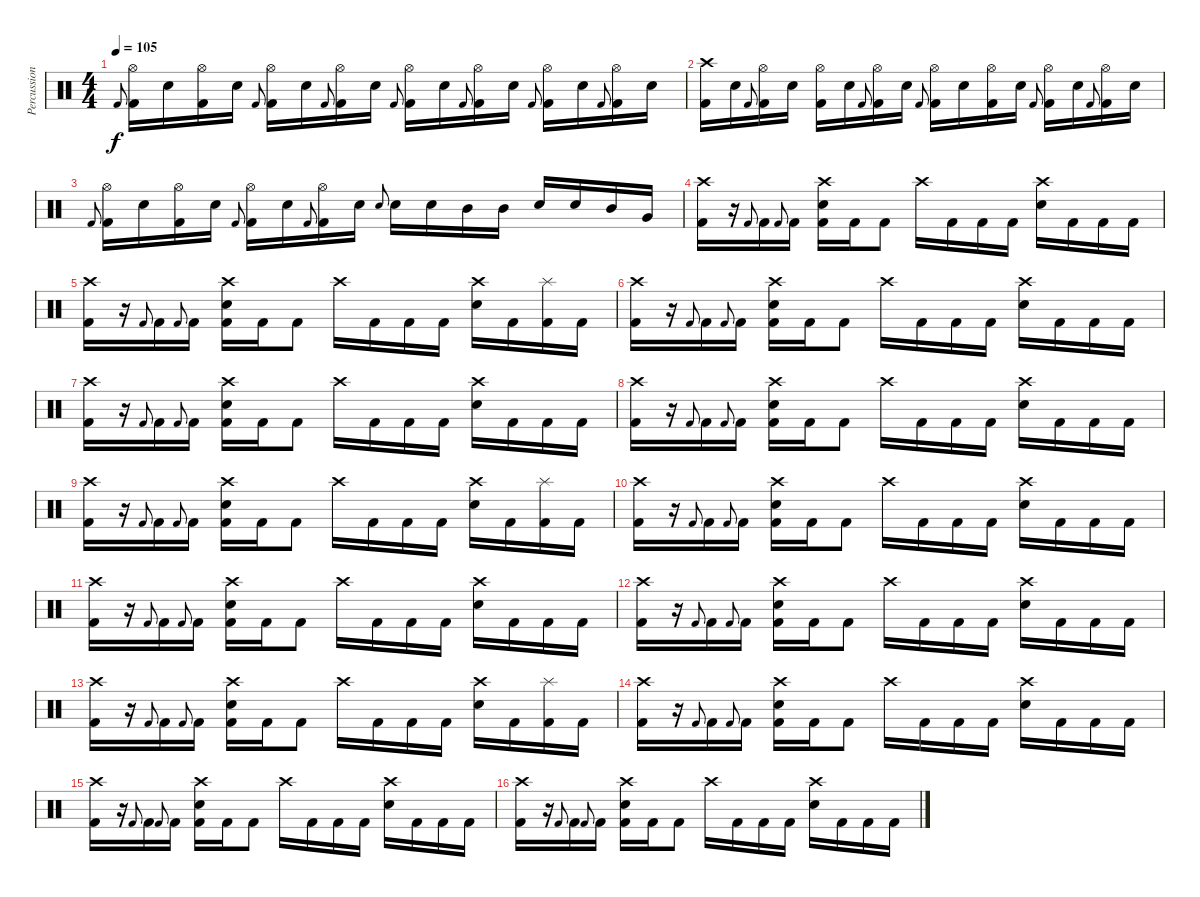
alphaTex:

\track ("Percussion" "Percussion") {instrument percussion}
\staff {score}
\articulation defaults
\ts (4 4)
\tempo 105
\clef neutral
\ks c "Kick (hit) 2".8{gr onbeat dy f}
("Hi-Hat (open)" "Kick (hit) 2").16 "Snare (hit) 2".16 ("Hi-Hat (open)" "Kick (hit) 2").16 "Snare (hit) 2".16 "Kick (hit) 2".8{gr onbeat} ("Hi-Hat (open)" "Kick (hit) 2").16 "Snare (hit) 2".16 "Kick (hit) 2".8{gr onbeat} ("Hi-Hat (open)" "Kick (hit) 2").16 "Snare (hit) 2".16 "Kick (hit) 2".8{gr onbeat} ("Hi-Hat (open)" "Kick (hit) 2").16 "Snare (hit) 2".16 "Kick (hit) 2".8{gr onbeat} ("Hi-Hat (open)" "Kick (hit) 2").16 "Snare (hit) 2".16 "Kick (hit) 2".8{gr onbeat} ("Hi-Hat (open)" "Kick (hit) 2").16 "Snare (hit) 2".16 "Kick (hit) 2".8{gr onbeat} ("Hi-Hat (open)" "Kick (hit) 2").16 "Snare (hit) 2".16 |
("Crash high (hit)" "Kick (hit) 2").16 "Snare (hit) 2".16 "Kick (hit) 2".8{gr onbeat} ("Hi-Hat (open)" "Kick (hit) 2").16 "Snare (hit) 2".16 ("Hi-Hat (open)" "Kick (hit) 2").16 "Snare (hit) 2".16 "Kick (hit) 2".8{gr onbeat} ("Hi-Hat (open)" "Kick (hit) 2").16 "Snare (hit) 2".16 "Kick (hit) 2".8{gr onbeat} ("Hi-Hat (open)" "Kick (hit) 2").16 "Snare (hit) 2".16 ("Hi-Hat (open)" "Kick (hit) 2").16 "Snare (hit) 2".16 "Kick (hit) 2".8{gr onbeat} ("Hi-Hat (open)" "Kick (hit) 2").16 "Snare (hit) 2".16 "Kick (hit) 2".8{gr onbeat} ("Hi-Hat (open)" "Kick (hit) 2").16 "Snare (hit) 2".16 |
"Kick (hit) 2".8{gr onbeat} ("Hi-Hat (open)" "Kick (hit) 2").16 "Snare (hit) 2".16 ("Hi-Hat (open)" "Kick (hit) 2").16 "Snare (hit) 2".16 "Kick (hit) 2".8{gr onbeat} ("Hi-Hat (open)" "Kick (hit) 2").16 "Snare (hit) 2".16 "Kick (hit) 2".8{gr onbeat} ("Hi-Hat (open)" "Kick (hit) 2").16 "Snare (hit) 2".16 "Snare (hit) 2".8{gr onbeat} "Snare (hit) 2".16 "Snare (hit) 2".16 "Mid Tom (hit)".16 "Mid Tom (hit)".16 "Snare (hit) 2".16 "Snare (hit) 2".16 "Mid Tom (hit)".16 "Very Low Tom (hit)".16 |
("Crash high (hit)" "Kick (hit) 2").16 r.16 "Kick (hit) 2".8{gr onbeat} "Kick (hit) 2".16 "Kick (hit) 2".8{gr onbeat} "Kick (hit) 2".16 ("Crash high (hit)" "Snare (hit) 2" "Kick (hit) 2").16 "Kick (hit) 2".16 "Kick (hit) 2".8 "Crash high (hit)".16 "Kick (hit) 2".16 "Kick (hit) 2".16 "Kick (hit) 2".16 ("Crash high (hit)" "Snare (hit) 2").16 "Kick (hit) 2".16 "Kick (hit) 2".16 "Kick (hit) 2".16 |
("Crash high (hit)" "Kick (hit) 2").16 r.16 "Kick (hit) 2".8{gr onbeat} "Kick (hit) 2".16 "Kick (hit) 2".8{gr onbeat} "Kick (hit) 2".16 ("Crash high (hit)" "Snare (hit) 2" "Kick (hit) 2").16 "Kick (hit) 2".16 "Kick (hit) 2".8 "Crash high (hit)".16 "Kick (hit) 2".16 "Kick (hit) 2".16 "Kick (hit) 2".16 ("Crash high (hit)" "Snare (hit) 2").16 "Kick (hit) 2".16 ("Splash (hit)" "Kick (hit) 2").16 "Kick (hit) 2".16 |
("Crash high (hit)" "Kick (hit) 2").16 r.16 "Kick (hit) 2".8{gr onbeat} "Kick (hit) 2".16 "Kick (hit) 2".8{gr onbeat} "Kick (hit) 2".16 ("Crash high (hit)" "Snare (hit) 2" "Kick (hit) 2").16 "Kick (hit) 2".16 "Kick (hit) 2".8 "Crash high (hit)".16 "Kick (hit) 2".16 "Kick (hit) 2".16 "Kick (hit) 2".16 ("Crash high (hit)" "Snare (hit) 2").16 "Kick (hit) 2".16 "Kick (hit) 2".16 "Kick (hit) 2".16 |
("Crash high (hit)" "Kick (hit) 2").16 r.16 "Kick (hit) 2".8{gr onbeat} "Kick (hit) 2".16 "Kick (hit) 2".8{gr onbeat} "Kick (hit) 2".16 ("Crash high (hit)" "Snare (hit) 2" "Kick (hit) 2").16 "Kick (hit) 2".16 "Kick (hit) 2".8 "Crash high (hit)".16 "Kick (hit) 2".16 "Kick (hit) 2".16 "Kick (hit) 2".16 ("Crash high (hit)" "Snare (hit) 2").16 "Kick (hit) 2".16 "Kick (hit) 2".16 "Kick (hit) 2".16 |
("Crash high (hit)" "Kick (hit) 2").16 r.16 "Kick (hit) 2".8{gr onbeat} "Kick (hit) 2".16 "Kick (hit) 2".8{gr onbeat} "Kick (hit) 2".16 ("Crash high (hit)" "Snare (hit) 2" "Kick (hit) 2").16 "Kick (hit) 2".16 "Kick (hit) 2".8 "Crash high (hit)".16 "Kick (hit) 2".16 "Kick (hit) 2".16 "Kick (hit) 2".16 ("Crash high (hit)" "Snare (hit) 2").16 "Kick (hit) 2".16 "Kick (hit) 2".16 "Kick (hit) 2".16 |
("Crash high (hit)" "Kick (hit) 2").16 r.16 "Kick (hit) 2".8{gr onbeat} "Kick (hit) 2".16 "Kick (hit) 2".8{gr onbeat} "Kick (hit) 2".16 ("Crash high (hit)" "Snare (hit) 2" "Kick (hit) 2").16 "Kick (hit) 2".16 "Kick (hit) 2".8 "Crash high (hit)".16 "Kick (hit) 2".16 "Kick (hit) 2".16 "Kick (hit) 2".16 ("Crash high (hit)" "Snare (hit) 2").16 "Kick (hit) 2".16 ("Splash (hit)" "Kick (hit) 2").16 "Kick (hit) 2".16 |
("Crash high (hit)" "Kick (hit) 2").16 r.16 "Kick (hit) 2".8{gr onbeat} "Kick (hit) 2".16 "Kick (hit) 2".8{gr onbeat} "Kick (hit) 2".16 ("Crash high (hit)" "Snare (hit) 2" "Kick (hit) 2").16 "Kick (hit) 2".16 "Kick (hit) 2".8 "Crash high (hit)".16 "Kick (hit) 2".16 "Kick (hit) 2".16 "Kick (hit) 2".16 ("Crash high (hit)" "Snare (hit) 2").16 "Kick (hit) 2".16 "Kick (hit) 2".16 "Kick (hit) 2".16 |
("Crash high (hit)" "Kick (hit) 2").16 r.16 "Kick (hit) 2".8{gr onbeat} "Kick (hit) 2".16 "Kick (hit) 2".8{gr onbeat} "Kick (hit) 2".16 ("Crash high (hit)" "Snare (hit) 2" "Kick (hit) 2").16 "Kick (hit) 2".16 "Kick (hit) 2".8 "Crash high (hit)".16 "Kick (hit) 2".16 "Kick (hit) 2".16 "Kick (hit) 2".16 ("Crash high (hit)" "Snare (hit) 2").16 "Kick (hit) 2".16 "Kick (hit) 2".16 "Kick (hit) 2".16 |
("Crash high (hit)" "Kick (hit) 2").16 r.16 "Kick (hit) 2".8{gr onbeat} "Kick (hit) 2".16 "Kick (hit) 2".8{gr onbeat} "Kick (hit) 2".16 ("Crash high (hit)" "Snare (hit) 2" "Kick (hit) 2").16 "Kick (hit) 2".16 "Kick (hit) 2".8 "Crash high (hit)".16 "Kick (hit) 2".16 "Kick (hit) 2".16 "Kick (hit) 2".16 ("Crash high (hit)" "Snare (hit) 2").16 "Kick (hit) 2".16 "Kick (hit) 2".16 "Kick (hit) 2".16 |
("Crash high (hit)" "Kick (hit) 2").16 r.16 "Kick (hit) 2".8{gr onbeat} "Kick (hit) 2".16 "Kick (hit) 2".8{gr onbeat} "Kick (hit) 2".16 ("Crash high (hit)" "Snare (hit) 2" "Kick (hit) 2").16 "Kick (hit) 2".16 "Kick (hit) 2".8 "Crash high (hit)".16 "Kick (hit) 2".16 "Kick (hit) 2".16 "Kick (hit) 2".16 ("Crash high (hit)" "Snare (hit) 2").16 "Kick (hit) 2".16 ("Splash (hit)" "Kick (hit) 2").16 "Kick (hit) 2".16 |
("Crash high (hit)" "Kick (hit) 2").16 r.16 "Kick (hit) 2".8{gr onbeat} "Kick (hit) 2".16 "Kick (hit) 2".8{gr onbeat} "Kick (hit) 2".16 ("Crash high (hit)" "Snare (hit) 2" "Kick (hit) 2").16 "Kick (hit) 2".16 "Kick (hit) 2".8 "Crash high (hit)".16 "Kick (hit) 2".16 "Kick (hit) 2".16 "Kick (hit) 2".16 ("Crash high (hit)" "Snare (hit) 2").16 "Kick (hit) 2".16 "Kick (hit) 2".16 "Kick (hit) 2".16 |
("Crash high (hit)" "Kick (hit) 2").16 r.16 "Kick (hit) 2".8{gr onbeat} "Kick (hit) 2".16 "Kick (hit) 2".8{gr onbeat} "Kick (hit) 2".16 ("Crash high (hit)" "Snare (hit) 2" "Kick (hit) 2").16 "Kick (hit) 2".16 "Kick (hit) 2".8 "Crash high (hit)".16 "Kick (hit) 2".16 "Kick (hit) 2".16 "Kick (hit) 2".16 ("Crash high (hit)" "Snare (hit) 2").16 "Kick (hit) 2".16 "Kick (hit) 2".16 "Kick (hit) 2".16 |
("Crash high (hit)" "Kick (hit) 2").16 r.16 "Kick (hit) 2".8{gr onbeat} "Kick (hit) 2".16 "Kick (hit) 2".8{gr onbeat} "Kick (hit) 2".16 ("Crash high (hit)" "Snare (hit) 2" "Kick (hit) 2").16 "Kick (hit) 2".16 "Kick (hit) 2".8 "Crash high (hit)".16 "Kick (hit) 2".16 "Kick (hit) 2".16 "Kick (hit) 2".16 ("Crash high (hit)" "Snare (hit) 2").16 "Kick (hit) 2".16 "Kick (hit) 2".16 "Kick (hit) 2".16
